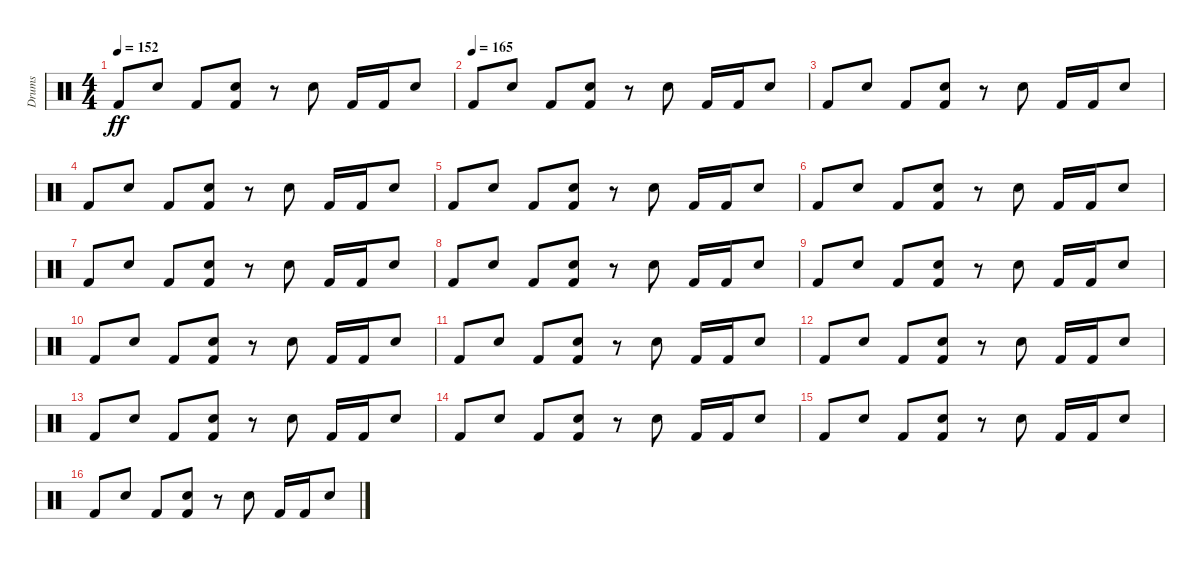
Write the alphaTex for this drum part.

\track ("Drums" "Drums") {instrument percussion}
\staff {score}
\articulation defaults
\ts (4 4)
\tempo 152
\clef neutral
\ks c "Kick (hit) 2".8{dy ff} "Snare (hit) 2".8 "Kick (hit) 2".8
("Kick (hit) 2" "Snare (hit) 2").8 r.8 "Snare (hit) 2".8 "Kick (hit) 2".16 "Kick (hit) 2".16 "Snare (hit) 2".8 |
\tempo (165)
"Kick (hit) 2".8 "Snare (hit) 2".8 "Kick (hit) 2".8 ("Snare (hit) 2" "Kick (hit) 2").8 r.8 "Snare (hit) 2".8 "Kick (hit) 2".16 "Kick (hit) 2".16 "Snare (hit) 2".8 |
"Kick (hit) 2".8 "Snare (hit) 2".8 "Kick (hit) 2".8 ("Kick (hit) 2" "Snare (hit) 2").8 r.8 "Snare (hit) 2".8 "Kick (hit) 2".16 "Kick (hit) 2".16 "Snare (hit) 2".8 |
"Kick (hit) 2".8 "Snare (hit) 2".8 "Kick (hit) 2".8 ("Snare (hit) 2" "Kick (hit) 2").8 r.8 "Snare (hit) 2".8 "Kick (hit) 2".16 "Kick (hit) 2".16 "Snare (hit) 2".8 |
"Kick (hit) 2".8 "Snare (hit) 2".8 "Kick (hit) 2".8 ("Kick (hit) 2" "Snare (hit) 2").8 r.8 "Snare (hit) 2".8 "Kick (hit) 2".16 "Kick (hit) 2".16 "Snare (hit) 2".8 |
"Kick (hit) 2".8 "Snare (hit) 2".8 "Kick (hit) 2".8 ("Snare (hit) 2" "Kick (hit) 2").8 r.8 "Snare (hit) 2".8 "Kick (hit) 2".16 "Kick (hit) 2".16 "Snare (hit) 2".8 |
"Kick (hit) 2".8 "Snare (hit) 2".8 "Kick (hit) 2".8 ("Kick (hit) 2" "Snare (hit) 2").8 r.8 "Snare (hit) 2".8 "Kick (hit) 2".16 "Kick (hit) 2".16 "Snare (hit) 2".8 |
"Kick (hit) 2".8 "Snare (hit) 2".8 "Kick (hit) 2".8 ("Snare (hit) 2" "Kick (hit) 2").8 r.8 "Snare (hit) 2".8 "Kick (hit) 2".16 "Kick (hit) 2".16 "Snare (hit) 2".8 |
"Kick (hit) 2".8 "Snare (hit) 2".8 "Kick (hit) 2".8 ("Snare (hit) 2" "Kick (hit) 2").8 r.8 "Snare (hit) 2".8 "Kick (hit) 2".16 "Kick (hit) 2".16 "Snare (hit) 2".8 |
"Kick (hit) 2".8 "Snare (hit) 2".8 "Kick (hit) 2".8 ("Kick (hit) 2" "Snare (hit) 2").8 r.8 "Snare (hit) 2".8 "Kick (hit) 2".16 "Kick (hit) 2".16 "Snare (hit) 2".8 |
"Kick (hit) 2".8 "Snare (hit) 2".8 "Kick (hit) 2".8 ("Snare (hit) 2" "Kick (hit) 2").8 r.8 "Snare (hit) 2".8 "Kick (hit) 2".16 "Kick (hit) 2".16 "Snare (hit) 2".8 |
"Kick (hit) 2".8 "Snare (hit) 2".8 "Kick (hit) 2".8 ("Kick (hit) 2" "Snare (hit) 2").8 r.8 "Snare (hit) 2".8 "Kick (hit) 2".16 "Kick (hit) 2".16 "Snare (hit) 2".8 |
"Kick (hit) 2".8 "Snare (hit) 2".8 "Kick (hit) 2".8 ("Snare (hit) 2" "Kick (hit) 2").8 r.8 "Snare (hit) 2".8 "Kick (hit) 2".16 "Kick (hit) 2".16 "Snare (hit) 2".8 |
"Kick (hit) 2".8 "Snare (hit) 2".8 "Kick (hit) 2".8 ("Kick (hit) 2" "Snare (hit) 2").8 r.8 "Snare (hit) 2".8 "Kick (hit) 2".16 "Kick (hit) 2".16 "Snare (hit) 2".8 |
"Kick (hit) 2".8 "Snare (hit) 2".8 "Kick (hit) 2".8 ("Snare (hit) 2" "Kick (hit) 2").8 r.8 "Snare (hit) 2".8 "Kick (hit) 2".16 "Kick (hit) 2".16 "Snare (hit) 2".8 |
"Kick (hit) 2".8 "Snare (hit) 2".8 "Kick (hit) 2".8 ("Kick (hit) 2" "Snare (hit) 2").8 r.8 "Snare (hit) 2".8 "Kick (hit) 2".16 "Kick (hit) 2".16 "Snare (hit) 2".8
